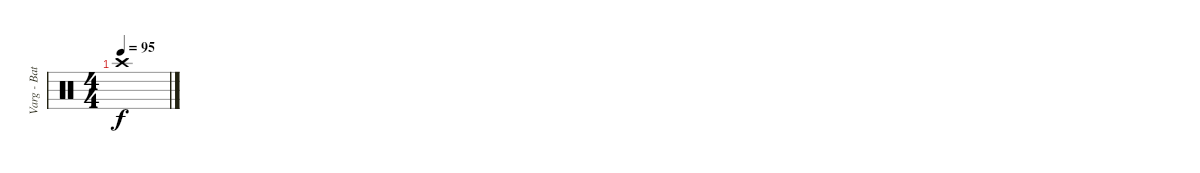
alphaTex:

\track ("Varg - Batterie" "Varg - Bat") {instrument percussion}
\staff {score}
\articulation defaults
\ts (4 4)
\tempo 95
\clef neutral
\ks c "Crash high (hit)".1{dy f}
